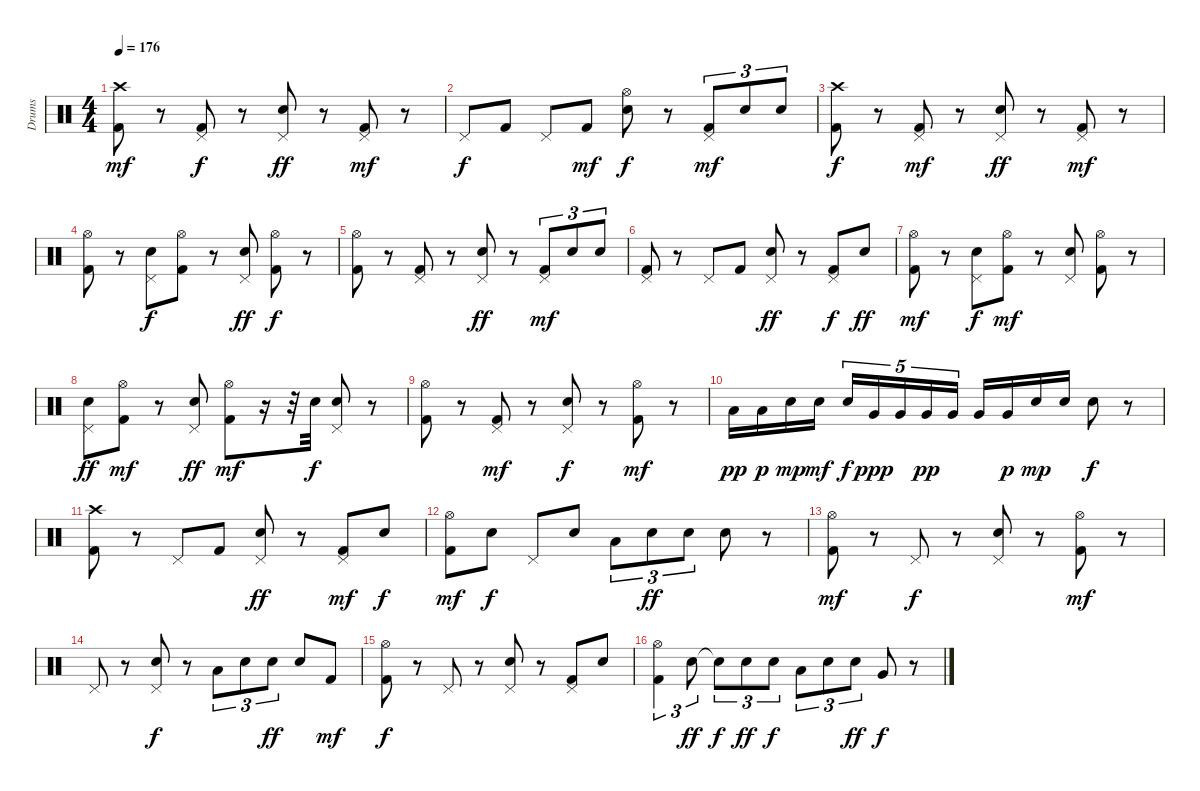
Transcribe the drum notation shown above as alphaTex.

\track ("Drums" "Drums") {instrument percussion}
\staff {score}
\articulation defaults
\ts (4 4)
\tempo 176
\clef neutral
\ks c
("Crash high (hit)" "Kick (hit) 2").8{dy mf} r.8 ("Pedal Hi-Hat (hit)" "Kick (hit) 2").8{dy f} r.8 ("Pedal Hi-Hat (hit)" "Snare (hit) 2").8{dy ff} r.8 ("Pedal Hi-Hat (hit)" "Kick (hit) 2").8{dy mf} r.8 |
"Pedal Hi-Hat (hit)".8{dy f} "Kick (hit) 2".8 "Pedal Hi-Hat (hit)".8 "Kick (hit) 2".8{dy mf} ("Hi-Hat (open)" "Snare (hit) 2").8{dy f} r.8 ("Pedal Hi-Hat (hit)" "Kick (hit) 2").8{tu (3 2) dy mf} "Snare (hit) 2".8{tu (3 2)} "Snare (hit) 2".8{tu (3 2)} |
("Crash high (hit)" "Kick (hit) 2").8{dy f} r.8 ("Pedal Hi-Hat (hit)" "Kick (hit) 2").8{dy mf} r.8 ("Pedal Hi-Hat (hit)" "Snare (hit) 2").8{dy ff} r.8 ("Pedal Hi-Hat (hit)" "Kick (hit) 2").8{dy mf} r.8 |
("Hi-Hat (open)" "Kick (hit) 2").8 r.8 ("Pedal Hi-Hat (hit)" "Snare (hit) 2").8{dy f} ("Hi-Hat (open)" "Kick (hit) 2").8 r.8 ("Pedal Hi-Hat (hit)" "Snare (hit) 2").8{dy ff} ("Hi-Hat (open)" "Kick (hit) 2").8{dy f} r.8 |
("Hi-Hat (open)" "Kick (hit) 2").8 r.8 ("Pedal Hi-Hat (hit)" "Kick (hit) 2").8 r.8 ("Pedal Hi-Hat (hit)" "Snare (hit) 2").8{dy ff} r.8 ("Pedal Hi-Hat (hit)" "Kick (hit) 2").8{tu (3 2) dy mf} "Snare (hit) 2".8{tu (3 2)} "Snare (hit) 2".8{tu (3 2)} |
("Pedal Hi-Hat (hit)" "Kick (hit) 2").8 r.8 "Pedal Hi-Hat (hit)".8 "Kick (hit) 2".8 ("Pedal Hi-Hat (hit)" "Snare (hit) 2").8{dy ff} r.8 ("Pedal Hi-Hat (hit)" "Kick (hit) 2").8{dy f} "Snare (hit) 2".8{dy ff} |
("Hi-Hat (open)" "Kick (hit) 2").8{dy mf} r.8 ("Pedal Hi-Hat (hit)" "Snare (hit) 2").8{dy f} ("Hi-Hat (open)" "Kick (hit) 2").8{dy mf} r.8 ("Pedal Hi-Hat (hit)" "Snare (hit) 2").8 ("Hi-Hat (open)" "Kick (hit) 2").8 r.8 |
("Pedal Hi-Hat (hit)" "Snare (hit) 2").8{dy ff} ("Hi-Hat (open)" "Kick (hit) 2").8{dy mf} r.8 ("Pedal Hi-Hat (hit)" "Snare (hit) 2").8{dy ff} ("Hi-Hat (open)" "Kick (hit) 2").8{dy mf} r.16 r.32 "Snare (hit) 2".32{dy f} ("Pedal Hi-Hat (hit)" "Snare (hit) 2").8 r.8 |
("Hi-Hat (open)" "Kick (hit) 2").8 r.8 ("Pedal Hi-Hat (hit)" "Kick (hit) 2").8{dy mf} r.8 ("Pedal Hi-Hat (hit)" "Snare (hit) 2").8{dy f} r.8 ("Hi-Hat (open)" "Kick (hit) 2").8{dy mf} r.8 |
"Low Tom (hit)".16{dy pp} "Low Tom (hit)".16{dy p} "Snare (hit) 2".16{dy mp} "Snare (hit) 2".16{dy mf} "Snare (hit) 2".16{tu (5 4) dy f} "Very Low Tom (hit)".16{tu (5 4) dy ppp} "Very Low Tom (hit)".16{tu (5 4)} "Very Low Tom (hit)".16{tu (5 4) dy pp} "Very Low Tom (hit)".16{tu (5 4)} "Very Low Tom (hit)".16 "Very Low Tom (hit)".16{dy p} "Snare (hit) 2".16{dy mp} "Snare (hit) 2".16 "Snare (hit) 2".8{dy f} r.8 |
("Crash high (hit)" "Kick (hit) 2").8 r.8 "Pedal Hi-Hat (hit)".8 "Kick (hit) 2".8 ("Pedal Hi-Hat (hit)" "Snare (hit) 2").8{dy ff} r.8 ("Pedal Hi-Hat (hit)" "Kick (hit) 2").8{dy mf} "Snare (hit) 2".8{dy f} |
("Hi-Hat (open)" "Kick (hit) 2").8{dy mf} "Snare (hit) 2".8{dy f} "Pedal Hi-Hat (hit)".8 "Snare (hit) 2".8 "Low Floor Tom (hit)".8{tu (3 2)} "Snare (hit) 2".8{tu (3 2) dy ff} "Snare (hit) 2".8{tu (3 2)} "Snare (hit) 2".8 r.8 |
("Hi-Hat (open)" "Kick (hit) 2").8{dy mf} r.8 "Pedal Hi-Hat (hit)".8{dy f} r.8 ("Pedal Hi-Hat (hit)" "Snare (hit) 2").8 r.8 ("Hi-Hat (open)" "Kick (hit) 2").8{dy mf} r.8 |
"Pedal Hi-Hat (hit)".8 r.8 ("Pedal Hi-Hat (hit)" "Snare (hit) 2").8{dy f} r.8 "Low Floor Tom (hit)".8{tu (3 2)} "Snare (hit) 2".8{tu (3 2)} "Snare (hit) 2".8{tu (3 2) dy ff} "Snare (hit) 2".8 "Kick (hit) 2".8{dy mf} |
("Hi-Hat (open)" "Kick (hit) 2").8{dy f} r.8 "Pedal Hi-Hat (hit)".8 r.8 ("Pedal Hi-Hat (hit)" "Snare (hit) 2").8 r.8 ("Pedal Hi-Hat (hit)" "Kick (hit) 2").8 "Snare (hit) 2".8 |
("Hi-Hat (open)" "Kick (hit) 2").4{tu (3 2)} "Snare (hit) 2".8{tu (3 2) dy ff} "Snare (hit)"{t}.8{tu (3 2) dy f} "Snare (hit) 2".8{tu (3 2) dy ff} "Snare (hit) 2".8{tu (3 2) dy f} "Low Tom (hit)".8{tu (3 2)} "Snare (hit) 2".8{tu (3 2)} "Snare (hit) 2".8{tu (3 2) dy ff} "Very Low Tom (hit)".8{dy f} r.8
